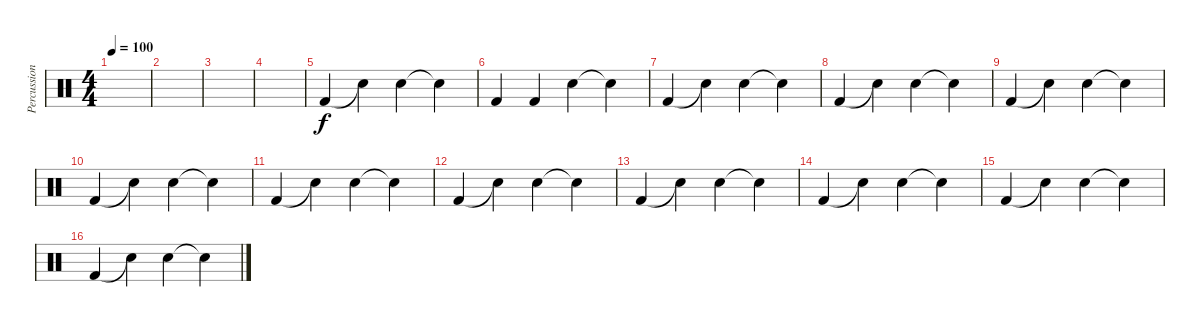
\track ("Percussioni" "Percussion") {instrument percussion}
\staff {score}
\articulation defaults
\ts (4 4)
\tempo 100
\clef neutral
\ks c
|
|
|
|
"Kick (hit) 2".4 "Snare (hit)"{t}.4 "Snare (hit) 2".4 "Snare (hit)"{t}.4 |
"Kick (hit) 2".4 "Kick (hit) 2".4 "Snare (hit) 2".4 "Snare (hit)"{t}.4 |
"Kick (hit) 2".4 "Snare (hit)"{t}.4 "Snare (hit) 2".4 "Snare (hit)"{t}.4 |
"Kick (hit) 2".4 "Snare (hit)"{t}.4 "Snare (hit) 2".4 "Snare (hit)"{t}.4 |
"Kick (hit) 2".4 "Snare (hit)"{t}.4 "Snare (hit) 2".4 "Snare (hit)"{t}.4 |
"Kick (hit) 2".4 "Snare (hit)"{t}.4 "Snare (hit) 2".4 "Snare (hit)"{t}.4 |
"Kick (hit) 2".4 "Snare (hit)"{t}.4 "Snare (hit) 2".4 "Snare (hit)"{t}.4 |
"Kick (hit) 2".4 "Snare (hit)"{t}.4 "Snare (hit) 2".4 "Snare (hit)"{t}.4 |
"Kick (hit) 2".4 "Snare (hit)"{t}.4 "Snare (hit) 2".4 "Snare (hit)"{t}.4 |
"Kick (hit) 2".4 "Snare (hit)"{t}.4 "Snare (hit) 2".4 "Snare (hit)"{t}.4 |
"Kick (hit) 2".4 "Snare (hit)"{t}.4 "Snare (hit) 2".4 "Snare (hit)"{t}.4 |
"Kick (hit) 2".4 "Snare (hit)"{t}.4 "Snare (hit) 2".4 "Snare (hit)"{t}.4
